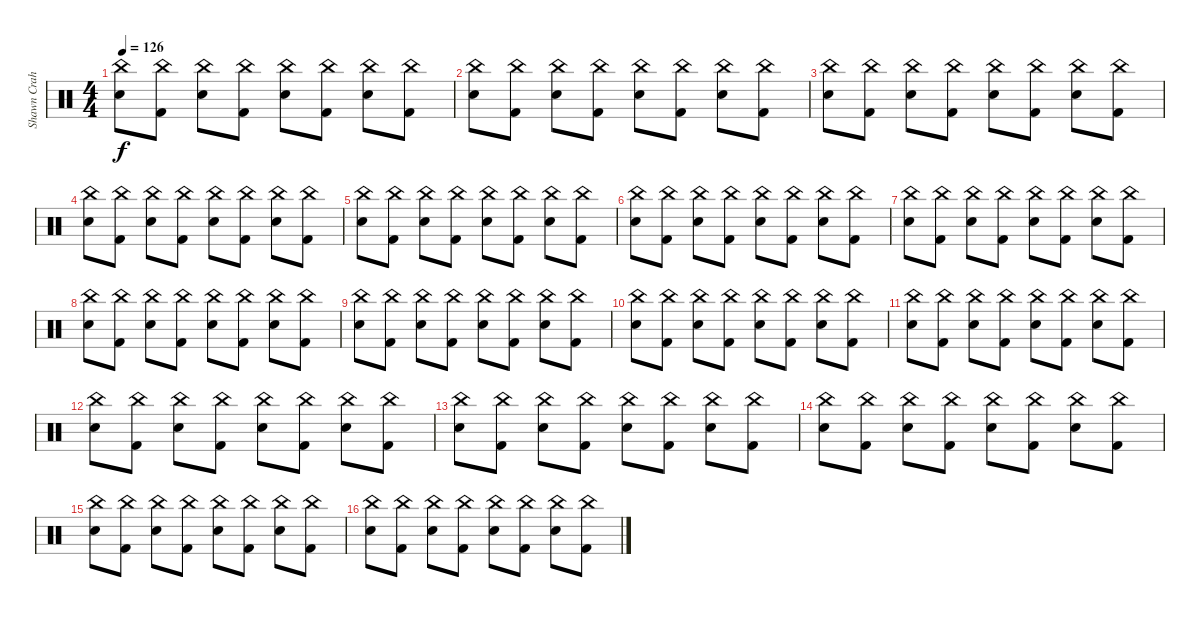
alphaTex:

\track ("Shawn Crahan" "Shawn Crah") {instrument percussion}
\staff {score}
\articulation defaults
\ts (4 4)
\tempo 126
\clef neutral
\ks c
("China (hit)" "Snare (hit) 2").8{dy f} ("China (hit)" "Kick (hit) 2").8 ("China (hit)" "Snare (hit) 2").8 ("China (hit)" "Kick (hit) 2").8 ("China (hit)" "Snare (hit) 2").8 ("China (hit)" "Kick (hit) 2").8 ("China (hit)" "Snare (hit) 2").8 ("China (hit)" "Kick (hit) 2").8 |
("China (hit)" "Snare (hit) 2").8 ("China (hit)" "Kick (hit) 2").8 ("China (hit)" "Snare (hit) 2").8 ("China (hit)" "Kick (hit) 2").8 ("China (hit)" "Snare (hit) 2").8 ("China (hit)" "Kick (hit) 2").8 ("China (hit)" "Snare (hit) 2").8 ("China (hit)" "Kick (hit) 2").8 |
("China (hit)" "Snare (hit) 2").8 ("China (hit)" "Kick (hit) 2").8 ("China (hit)" "Snare (hit) 2").8 ("China (hit)" "Kick (hit) 2").8 ("China (hit)" "Snare (hit) 2").8 ("China (hit)" "Kick (hit) 2").8 ("China (hit)" "Snare (hit) 2").8 ("China (hit)" "Kick (hit) 2").8 |
("China (hit)" "Snare (hit) 2").8 ("China (hit)" "Kick (hit) 2").8 ("China (hit)" "Snare (hit) 2").8 ("China (hit)" "Kick (hit) 2").8 ("China (hit)" "Snare (hit) 2").8 ("China (hit)" "Kick (hit) 2").8 ("China (hit)" "Snare (hit) 2").8 ("China (hit)" "Kick (hit) 2").8 |
("China (hit)" "Snare (hit) 2").8 ("China (hit)" "Kick (hit) 2").8 ("China (hit)" "Snare (hit) 2").8 ("China (hit)" "Kick (hit) 2").8 ("China (hit)" "Snare (hit) 2").8 ("China (hit)" "Kick (hit) 2").8 ("China (hit)" "Snare (hit) 2").8 ("China (hit)" "Kick (hit) 2").8 |
("China (hit)" "Snare (hit) 2").8 ("China (hit)" "Kick (hit) 2").8 ("China (hit)" "Snare (hit) 2").8 ("China (hit)" "Kick (hit) 2").8 ("China (hit)" "Snare (hit) 2").8 ("China (hit)" "Kick (hit) 2").8 ("China (hit)" "Snare (hit) 2").8 ("China (hit)" "Kick (hit) 2").8 |
("China (hit)" "Snare (hit) 2").8 ("China (hit)" "Kick (hit) 2").8 ("China (hit)" "Snare (hit) 2").8 ("China (hit)" "Kick (hit) 2").8 ("China (hit)" "Snare (hit) 2").8 ("China (hit)" "Kick (hit) 2").8 ("China (hit)" "Snare (hit) 2").8 ("China (hit)" "Kick (hit) 2").8 |
("China (hit)" "Snare (hit) 2").8 ("China (hit)" "Kick (hit) 2").8 ("China (hit)" "Snare (hit) 2").8 ("China (hit)" "Kick (hit) 2").8 ("China (hit)" "Snare (hit) 2").8 ("China (hit)" "Kick (hit) 2").8 ("China (hit)" "Snare (hit) 2").8 ("China (hit)" "Kick (hit) 2").8 |
("China (hit)" "Snare (hit) 2").8 ("China (hit)" "Kick (hit) 2").8 ("China (hit)" "Snare (hit) 2").8 ("China (hit)" "Kick (hit) 2").8 ("China (hit)" "Snare (hit) 2").8 ("China (hit)" "Kick (hit) 2").8 ("China (hit)" "Snare (hit) 2").8 ("China (hit)" "Kick (hit) 2").8 |
("China (hit)" "Snare (hit) 2").8 ("China (hit)" "Kick (hit) 2").8 ("China (hit)" "Snare (hit) 2").8 ("China (hit)" "Kick (hit) 2").8 ("China (hit)" "Snare (hit) 2").8 ("China (hit)" "Kick (hit) 2").8 ("China (hit)" "Snare (hit) 2").8 ("China (hit)" "Kick (hit) 2").8 |
("China (hit)" "Snare (hit) 2").8 ("China (hit)" "Kick (hit) 2").8 ("China (hit)" "Snare (hit) 2").8 ("China (hit)" "Kick (hit) 2").8 ("China (hit)" "Snare (hit) 2").8 ("China (hit)" "Kick (hit) 2").8 ("China (hit)" "Snare (hit) 2").8 ("China (hit)" "Kick (hit) 2").8 |
("China (hit)" "Snare (hit) 2").8 ("China (hit)" "Kick (hit) 2").8 ("China (hit)" "Snare (hit) 2").8 ("China (hit)" "Kick (hit) 2").8 ("China (hit)" "Snare (hit) 2").8 ("China (hit)" "Kick (hit) 2").8 ("China (hit)" "Snare (hit) 2").8 ("China (hit)" "Kick (hit) 2").8 |
("China (hit)" "Snare (hit) 2").8 ("China (hit)" "Kick (hit) 2").8 ("China (hit)" "Snare (hit) 2").8 ("China (hit)" "Kick (hit) 2").8 ("China (hit)" "Snare (hit) 2").8 ("China (hit)" "Kick (hit) 2").8 ("China (hit)" "Snare (hit) 2").8 ("China (hit)" "Kick (hit) 2").8 |
("China (hit)" "Snare (hit) 2").8 ("China (hit)" "Kick (hit) 2").8 ("China (hit)" "Snare (hit) 2").8 ("China (hit)" "Kick (hit) 2").8 ("China (hit)" "Snare (hit) 2").8 ("China (hit)" "Kick (hit) 2").8 ("China (hit)" "Snare (hit) 2").8 ("China (hit)" "Kick (hit) 2").8 |
("China (hit)" "Snare (hit) 2").8 ("China (hit)" "Kick (hit) 2").8 ("China (hit)" "Snare (hit) 2").8 ("China (hit)" "Kick (hit) 2").8 ("China (hit)" "Snare (hit) 2").8 ("China (hit)" "Kick (hit) 2").8 ("China (hit)" "Snare (hit) 2").8 ("China (hit)" "Kick (hit) 2").8 |
("China (hit)" "Snare (hit) 2").8 ("China (hit)" "Kick (hit) 2").8 ("China (hit)" "Snare (hit) 2").8 ("China (hit)" "Kick (hit) 2").8 ("China (hit)" "Snare (hit) 2").8 ("China (hit)" "Kick (hit) 2").8 ("China (hit)" "Snare (hit) 2").8 ("China (hit)" "Kick (hit) 2").8
